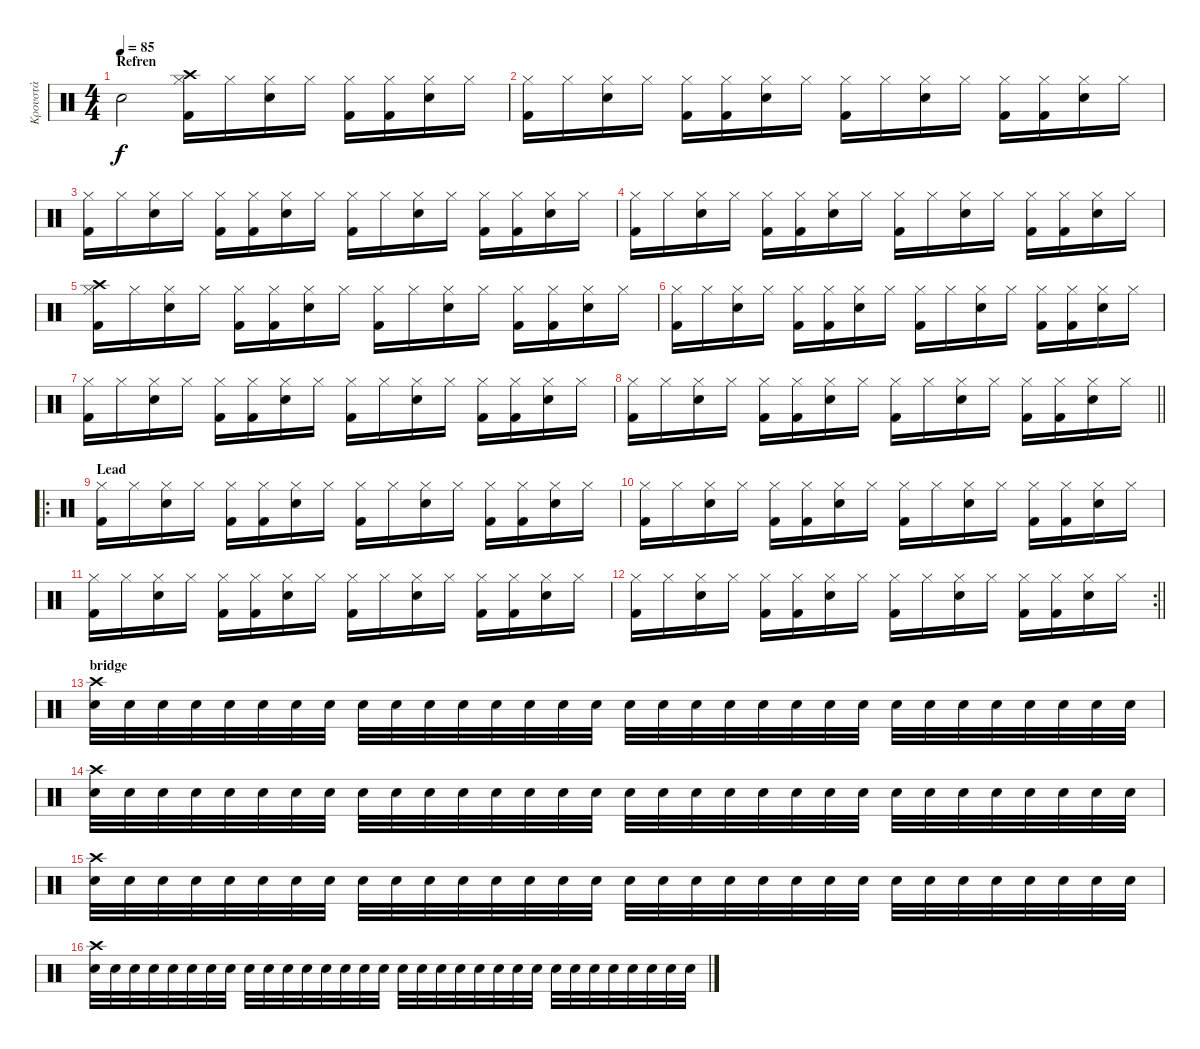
\track ("Κρουστά" "Κρουστά") {instrument percussion}
\staff {score}
\articulation defaults
\ts (4 4)
\section ("" "Refren")
\tempo 85
\clef neutral
\ks c "Snare (hit) 2".2{dy f}
("Crash high (hit)" "Hi-Hat (closed)" "Kick (hit) 2").16 "Hi-Hat (closed)".16 ("Hi-Hat (closed)" "Snare (hit) 2").16 "Hi-Hat (closed)".16 ("Hi-Hat (closed)" "Kick (hit) 2").16 ("Hi-Hat (closed)" "Kick (hit) 2").16 ("Hi-Hat (closed)" "Snare (hit) 2").16 "Hi-Hat (closed)".16 |
("Hi-Hat (closed)" "Kick (hit) 2").16 "Hi-Hat (closed)".16 ("Hi-Hat (closed)" "Snare (hit) 2").16 "Hi-Hat (closed)".16 ("Hi-Hat (closed)" "Kick (hit) 2").16 ("Hi-Hat (closed)" "Kick (hit) 2").16 ("Hi-Hat (closed)" "Snare (hit) 2").16 "Hi-Hat (closed)".16 ("Hi-Hat (closed)" "Kick (hit) 2").16 "Hi-Hat (closed)".16 ("Hi-Hat (closed)" "Snare (hit) 2").16 "Hi-Hat (closed)".16 ("Hi-Hat (closed)" "Kick (hit) 2").16 ("Hi-Hat (closed)" "Kick (hit) 2").16 ("Hi-Hat (closed)" "Snare (hit) 2").16 "Hi-Hat (closed)".16 |
("Hi-Hat (closed)" "Kick (hit) 2").16 "Hi-Hat (closed)".16 ("Hi-Hat (closed)" "Snare (hit) 2").16 "Hi-Hat (closed)".16 ("Hi-Hat (closed)" "Kick (hit) 2").16 ("Hi-Hat (closed)" "Kick (hit) 2").16 ("Hi-Hat (closed)" "Snare (hit) 2").16 "Hi-Hat (closed)".16 ("Hi-Hat (closed)" "Kick (hit) 2").16 "Hi-Hat (closed)".16 ("Hi-Hat (closed)" "Snare (hit) 2").16 "Hi-Hat (closed)".16 ("Hi-Hat (closed)" "Kick (hit) 2").16 ("Hi-Hat (closed)" "Kick (hit) 2").16 ("Hi-Hat (closed)" "Snare (hit) 2").16 "Hi-Hat (closed)".16 |
("Hi-Hat (closed)" "Kick (hit) 2").16 "Hi-Hat (closed)".16 ("Hi-Hat (closed)" "Snare (hit) 2").16 "Hi-Hat (closed)".16 ("Hi-Hat (closed)" "Kick (hit) 2").16 ("Hi-Hat (closed)" "Kick (hit) 2").16 ("Hi-Hat (closed)" "Snare (hit) 2").16 "Hi-Hat (closed)".16 ("Hi-Hat (closed)" "Kick (hit) 2").16 "Hi-Hat (closed)".16 ("Hi-Hat (closed)" "Snare (hit) 2").16 "Hi-Hat (closed)".16 ("Hi-Hat (closed)" "Kick (hit) 2").16 ("Hi-Hat (closed)" "Kick (hit) 2").16 ("Hi-Hat (closed)" "Snare (hit) 2").16 "Hi-Hat (closed)".16 |
("Crash high (hit)" "Hi-Hat (closed)" "Kick (hit) 2").16 "Hi-Hat (closed)".16 ("Hi-Hat (closed)" "Snare (hit) 2").16 "Hi-Hat (closed)".16 ("Hi-Hat (closed)" "Kick (hit) 2").16 ("Hi-Hat (closed)" "Kick (hit) 2").16 ("Hi-Hat (closed)" "Snare (hit) 2").16 "Hi-Hat (closed)".16 ("Hi-Hat (closed)" "Kick (hit) 2").16 "Hi-Hat (closed)".16 ("Hi-Hat (closed)" "Snare (hit) 2").16 "Hi-Hat (closed)".16 ("Hi-Hat (closed)" "Kick (hit) 2").16 ("Hi-Hat (closed)" "Kick (hit) 2").16 ("Hi-Hat (closed)" "Snare (hit) 2").16 "Hi-Hat (closed)".16 |
("Hi-Hat (closed)" "Kick (hit) 2").16 "Hi-Hat (closed)".16 ("Hi-Hat (closed)" "Snare (hit) 2").16 "Hi-Hat (closed)".16 ("Hi-Hat (closed)" "Kick (hit) 2").16 ("Hi-Hat (closed)" "Kick (hit) 2").16 ("Hi-Hat (closed)" "Snare (hit) 2").16 "Hi-Hat (closed)".16 ("Hi-Hat (closed)" "Kick (hit) 2").16 "Hi-Hat (closed)".16 ("Hi-Hat (closed)" "Snare (hit) 2").16 "Hi-Hat (closed)".16 ("Hi-Hat (closed)" "Kick (hit) 2").16 ("Hi-Hat (closed)" "Kick (hit) 2").16 ("Hi-Hat (closed)" "Snare (hit) 2").16 "Hi-Hat (closed)".16 |
("Hi-Hat (closed)" "Kick (hit) 2").16 "Hi-Hat (closed)".16 ("Hi-Hat (closed)" "Snare (hit) 2").16 "Hi-Hat (closed)".16 ("Hi-Hat (closed)" "Kick (hit) 2").16 ("Hi-Hat (closed)" "Kick (hit) 2").16 ("Hi-Hat (closed)" "Snare (hit) 2").16 "Hi-Hat (closed)".16 ("Hi-Hat (closed)" "Kick (hit) 2").16 "Hi-Hat (closed)".16 ("Hi-Hat (closed)" "Snare (hit) 2").16 "Hi-Hat (closed)".16 ("Hi-Hat (closed)" "Kick (hit) 2").16 ("Hi-Hat (closed)" "Kick (hit) 2").16 ("Hi-Hat (closed)" "Snare (hit) 2").16 "Hi-Hat (closed)".16 |
\barLineRight lightlight
("Hi-Hat (closed)" "Kick (hit) 2").16 "Hi-Hat (closed)".16 ("Hi-Hat (closed)" "Snare (hit) 2").16 "Hi-Hat (closed)".16 ("Hi-Hat (closed)" "Kick (hit) 2").16 ("Hi-Hat (closed)" "Kick (hit) 2").16 ("Hi-Hat (closed)" "Snare (hit) 2").16 "Hi-Hat (closed)".16 ("Hi-Hat (closed)" "Kick (hit) 2").16 "Hi-Hat (closed)".16 ("Hi-Hat (closed)" "Snare (hit) 2").16 "Hi-Hat (closed)".16 ("Hi-Hat (closed)" "Kick (hit) 2").16 ("Hi-Hat (closed)" "Kick (hit) 2").16 ("Hi-Hat (closed)" "Snare (hit) 2").16 "Hi-Hat (closed)".16 |
\ro
\section ("" "Lead")
("Hi-Hat (closed)" "Kick (hit) 2").16 "Hi-Hat (closed)".16 ("Hi-Hat (closed)" "Snare (hit) 2").16 "Hi-Hat (closed)".16 ("Hi-Hat (closed)" "Kick (hit) 2").16 ("Hi-Hat (closed)" "Kick (hit) 2").16 ("Hi-Hat (closed)" "Snare (hit) 2").16 "Hi-Hat (closed)".16 ("Hi-Hat (closed)" "Kick (hit) 2").16 "Hi-Hat (closed)".16 ("Hi-Hat (closed)" "Snare (hit) 2").16 "Hi-Hat (closed)".16 ("Hi-Hat (closed)" "Kick (hit) 2").16 ("Hi-Hat (closed)" "Kick (hit) 2").16 ("Hi-Hat (closed)" "Snare (hit) 2").16 "Hi-Hat (closed)".16 |
("Hi-Hat (closed)" "Kick (hit) 2").16 "Hi-Hat (closed)".16 ("Hi-Hat (closed)" "Snare (hit) 2").16 "Hi-Hat (closed)".16 ("Hi-Hat (closed)" "Kick (hit) 2").16 ("Hi-Hat (closed)" "Kick (hit) 2").16 ("Hi-Hat (closed)" "Snare (hit) 2").16 "Hi-Hat (closed)".16 ("Hi-Hat (closed)" "Kick (hit) 2").16 "Hi-Hat (closed)".16 ("Hi-Hat (closed)" "Snare (hit) 2").16 "Hi-Hat (closed)".16 ("Hi-Hat (closed)" "Kick (hit) 2").16 ("Hi-Hat (closed)" "Kick (hit) 2").16 ("Hi-Hat (closed)" "Snare (hit) 2").16 "Hi-Hat (closed)".16 |
("Hi-Hat (closed)" "Kick (hit) 2").16 "Hi-Hat (closed)".16 ("Hi-Hat (closed)" "Snare (hit) 2").16 "Hi-Hat (closed)".16 ("Hi-Hat (closed)" "Kick (hit) 2").16 ("Hi-Hat (closed)" "Kick (hit) 2").16 ("Hi-Hat (closed)" "Snare (hit) 2").16 "Hi-Hat (closed)".16 ("Hi-Hat (closed)" "Kick (hit) 2").16 "Hi-Hat (closed)".16 ("Hi-Hat (closed)" "Snare (hit) 2").16 "Hi-Hat (closed)".16 ("Hi-Hat (closed)" "Kick (hit) 2").16 ("Hi-Hat (closed)" "Kick (hit) 2").16 ("Hi-Hat (closed)" "Snare (hit) 2").16 "Hi-Hat (closed)".16 |
\rc 2
\barLineRight lightlight
("Hi-Hat (closed)" "Kick (hit) 2").16 "Hi-Hat (closed)".16 ("Hi-Hat (closed)" "Snare (hit) 2").16 "Hi-Hat (closed)".16 ("Hi-Hat (closed)" "Kick (hit) 2").16 ("Hi-Hat (closed)" "Kick (hit) 2").16 ("Hi-Hat (closed)" "Snare (hit) 2").16 "Hi-Hat (closed)".16 ("Hi-Hat (closed)" "Kick (hit) 2").16 "Hi-Hat (closed)".16 ("Hi-Hat (closed)" "Snare (hit) 2").16 "Hi-Hat (closed)".16 ("Hi-Hat (closed)" "Kick (hit) 2").16 ("Hi-Hat (closed)" "Kick (hit) 2").16 ("Hi-Hat (closed)" "Snare (hit) 2").16 "Hi-Hat (closed)".16 |
\section ("" "bridge")
("Crash high (hit)" "Snare (hit) 2").32 "Snare (hit) 2".32 "Snare (hit) 2".32 "Snare (hit) 2".32 "Snare (hit) 2".32 "Snare (hit) 2".32 "Snare (hit) 2".32 "Snare (hit) 2".32 "Snare (hit) 2".32 "Snare (hit) 2".32 "Snare (hit) 2".32 "Snare (hit) 2".32 "Snare (hit) 2".32 "Snare (hit) 2".32 "Snare (hit) 2".32 "Snare (hit) 2".32 "Snare (hit) 2".32 "Snare (hit) 2".32 "Snare (hit) 2".32 "Snare (hit) 2".32 "Snare (hit) 2".32 "Snare (hit) 2".32 "Snare (hit) 2".32 "Snare (hit) 2".32 "Snare (hit) 2".32 "Snare (hit) 2".32 "Snare (hit) 2".32 "Snare (hit) 2".32 "Snare (hit) 2".32 "Snare (hit) 2".32 "Snare (hit) 2".32 "Snare (hit) 2".32 |
("Crash high (hit)" "Snare (hit) 2").32 "Snare (hit) 2".32 "Snare (hit) 2".32 "Snare (hit) 2".32 "Snare (hit) 2".32 "Snare (hit) 2".32 "Snare (hit) 2".32 "Snare (hit) 2".32 "Snare (hit) 2".32 "Snare (hit) 2".32 "Snare (hit) 2".32 "Snare (hit) 2".32 "Snare (hit) 2".32 "Snare (hit) 2".32 "Snare (hit) 2".32 "Snare (hit) 2".32 "Snare (hit) 2".32 "Snare (hit) 2".32 "Snare (hit) 2".32 "Snare (hit) 2".32 "Snare (hit) 2".32 "Snare (hit) 2".32 "Snare (hit) 2".32 "Snare (hit) 2".32 "Snare (hit) 2".32 "Snare (hit) 2".32 "Snare (hit) 2".32 "Snare (hit) 2".32 "Snare (hit) 2".32 "Snare (hit) 2".32 "Snare (hit) 2".32 "Snare (hit) 2".32 |
("Crash high (hit)" "Snare (hit) 2").32 "Snare (hit) 2".32 "Snare (hit) 2".32 "Snare (hit) 2".32 "Snare (hit) 2".32 "Snare (hit) 2".32 "Snare (hit) 2".32 "Snare (hit) 2".32 "Snare (hit) 2".32 "Snare (hit) 2".32 "Snare (hit) 2".32 "Snare (hit) 2".32 "Snare (hit) 2".32 "Snare (hit) 2".32 "Snare (hit) 2".32 "Snare (hit) 2".32 "Snare (hit) 2".32 "Snare (hit) 2".32 "Snare (hit) 2".32 "Snare (hit) 2".32 "Snare (hit) 2".32 "Snare (hit) 2".32 "Snare (hit) 2".32 "Snare (hit) 2".32 "Snare (hit) 2".32 "Snare (hit) 2".32 "Snare (hit) 2".32 "Snare (hit) 2".32 "Snare (hit) 2".32 "Snare (hit) 2".32 "Snare (hit) 2".32 "Snare (hit) 2".32 |
("Crash high (hit)" "Snare (hit) 2").32 "Snare (hit) 2".32 "Snare (hit) 2".32 "Snare (hit) 2".32 "Snare (hit) 2".32 "Snare (hit) 2".32 "Snare (hit) 2".32 "Snare (hit) 2".32 "Snare (hit) 2".32 "Snare (hit) 2".32 "Snare (hit) 2".32 "Snare (hit) 2".32 "Snare (hit) 2".32 "Snare (hit) 2".32 "Snare (hit) 2".32 "Snare (hit) 2".32 "Snare (hit) 2".32 "Snare (hit) 2".32 "Snare (hit) 2".32 "Snare (hit) 2".32 "Snare (hit) 2".32 "Snare (hit) 2".32 "Snare (hit) 2".32 "Snare (hit) 2".32 "Snare (hit) 2".32 "Snare (hit) 2".32 "Snare (hit) 2".32 "Snare (hit) 2".32 "Snare (hit) 2".32 "Snare (hit) 2".32 "Snare (hit) 2".32 "Snare (hit) 2".32
